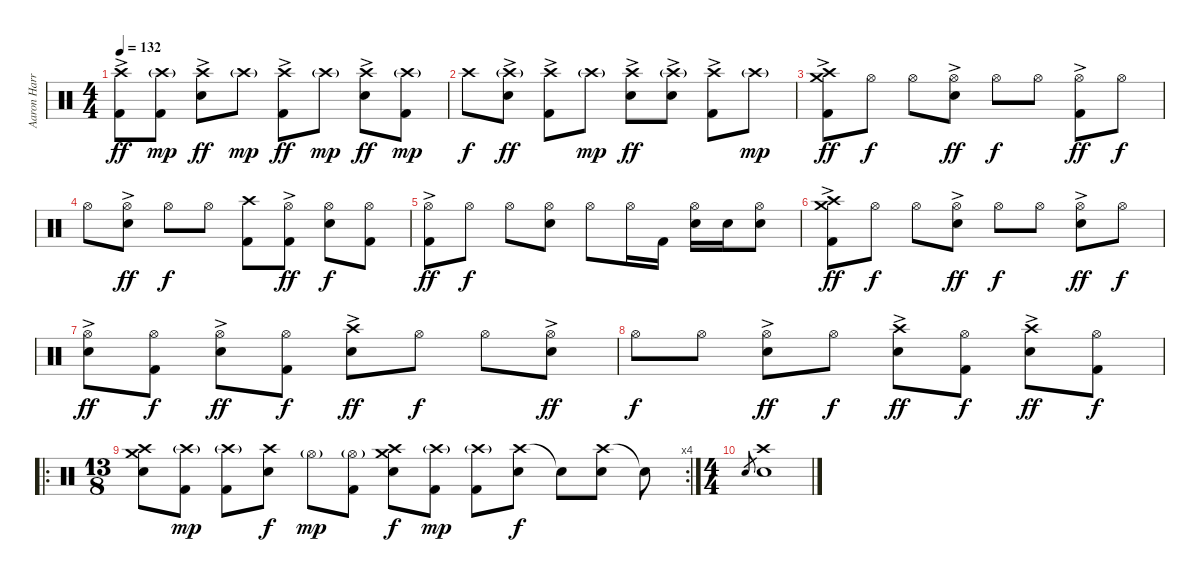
\track ("Aaron Harris" "Aaron Harr") {instrument percussion}
\staff {score}
\articulation defaults
\ts (4 4)
\tempo 132
\clef neutral
\ks c
("Crash high (hit)" "Kick (hit) 2"{ac}).8{dy ff} ("Crash high (hit)"{g} "Kick (hit) 2").8{dy mp} ("Crash high (hit)" "Snare (hit) 2"{ac}).8{dy ff} "Crash high (hit)"{g}.8{dy mp} ("Crash high (hit)" "Kick (hit) 2"{ac}).8{dy ff} "Crash high (hit)"{g}.8{dy mp} ("Crash high (hit)" "Snare (hit) 2"{ac}).8{dy ff} ("Crash high (hit)"{g} "Kick (hit) 2").8{dy mp} |
"Crash high (hit)".8{dy f} ("Crash high (hit)"{g} "Snare (hit) 2"{ac}).8{dy ff} ("Crash high (hit)" "Kick (hit) 2"{ac}).8 "Crash high (hit)"{g}.8{dy mp} ("Crash high (hit)" "Snare (hit) 2"{ac}).8{dy ff} ("Crash high (hit)"{g} "Snare (hit) 2"{ac}).8 ("Crash high (hit)" "Kick (hit) 2"{ac}).8 "Crash high (hit)"{g}.8{dy mp} |
("Crash medium (hit)" "Crash high (hit)" "Kick (hit) 2"{ac}).8{dy ff} "Hi-Hat (open)".8{dy f} "Hi-Hat (open)".8 ("Hi-Hat (open)" "Snare (hit) 2"{ac}).8{dy ff} "Hi-Hat (open)".8{dy f} "Hi-Hat (open)".8 ("Hi-Hat (open)" "Kick (hit) 2"{ac}).8{dy ff} "Hi-Hat (open)".8{dy f} |
"Hi-Hat (open)".8 ("Hi-Hat (open)" "Snare (hit) 2"{ac}).8{dy ff} "Hi-Hat (open)".8{dy f} "Hi-Hat (open)".8 ("Crash high (hit)" "Kick (hit) 2").8 ("Hi-Hat (open)" "Kick (hit) 2"{ac}).8{dy ff} ("Hi-Hat (open)" "Snare (hit) 2").8{dy f} ("Hi-Hat (open)" "Kick (hit) 2").8 |
("Hi-Hat (open)" "Kick (hit) 2"{ac}).8{dy ff} "Hi-Hat (open)".8{dy f} "Hi-Hat (open)".8 ("Hi-Hat (open)" "Snare (hit) 2").8 "Hi-Hat (open)".8 "Hi-Hat (open)".16 "Kick (hit) 2".16 ("Hi-Hat (open)" "Snare (hit) 2").16 "Snare (hit) 2".16 ("Hi-Hat (open)" "Snare (hit) 2").8 |
("Crash medium (hit)" "Crash high (hit)" "Kick (hit) 2"{ac}).8{dy ff} "Hi-Hat (open)".8{dy f} "Hi-Hat (open)".8 ("Hi-Hat (open)" "Snare (hit) 2"{ac}).8{dy ff} "Hi-Hat (open)".8{dy f} "Hi-Hat (open)".8 ("Hi-Hat (open)" "Snare (hit) 2"{ac}).8{dy ff} "Hi-Hat (open)".8{dy f} |
("Hi-Hat (open)" "Snare (hit) 2"{ac}).8{dy ff} ("Hi-Hat (open)" "Kick (hit) 2").8{dy f} ("Hi-Hat (open)" "Snare (hit) 2"{ac}).8{dy ff} ("Hi-Hat (open)" "Kick (hit) 2").8{dy f} ("Crash high (hit)" "Snare (hit) 2"{ac}).8{dy ff} "Hi-Hat (open)".8{dy f} "Hi-Hat (open)".8 ("Hi-Hat (open)" "Snare (hit) 2"{ac}).8{dy ff} |
"Hi-Hat (open)".8{dy f} "Hi-Hat (open)".8 ("Hi-Hat (open)" "Snare (hit) 2"{ac}).8{dy ff} "Hi-Hat (open)".8{dy f} ("Crash high (hit)" "Snare (hit) 2"{ac}).8{dy ff} ("Hi-Hat (open)" "Kick (hit) 2").8{dy f} ("Crash high (hit)" "Snare (hit) 2"{ac}).8{dy ff} ("Hi-Hat (open)" "Kick (hit) 2").8{dy f} |
\ro
\rc 4
\ts (13 8)
("Crash medium (hit)" "Crash high (hit)" "Snare (hit) 2").8 ("Crash high (hit)"{g} "Kick (hit) 2").8{dy mp} ("Crash high (hit)"{g} "Kick (hit) 2").8 ("Crash high (hit)" "Snare (hit) 2").8{dy f} "Hi-Hat (open)"{g}.8{dy mp} ("Hi-Hat (open)"{g} "Kick (hit) 2").8 ("Crash medium (hit)" "Crash high (hit)" "Snare (hit) 2").8{dy f} ("Crash high (hit)"{g} "Kick (hit) 2").8{dy mp} ("Crash high (hit)"{g} "Kick (hit) 2").8 ("Crash high (hit)" "Snare (hit) 2").8{dy f} "Snare (hit)"{t}.8 ("Crash high (hit)" "Snare (hit) 2").8 "Snare (hit)"{t}.8 |
\ts (4 4)
"Snare (hit) 2".8{gr} ("Crash high (hit)" "Snare (hit) 2").1
